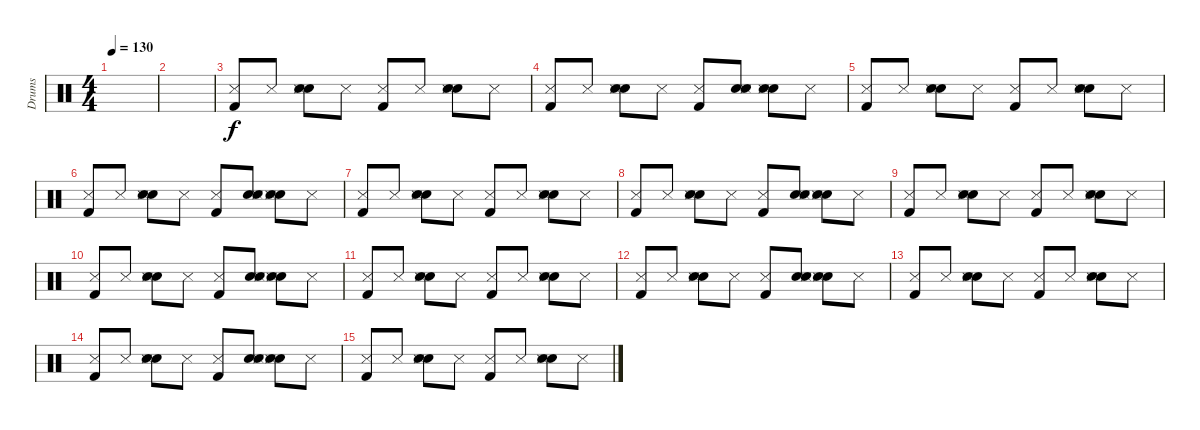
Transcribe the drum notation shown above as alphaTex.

\track ("Drums" "Drums") {instrument percussion}
\staff {score}
\articulation defaults
\ts (4 4)
\tempo 130
\clef neutral
\ks c
|
|
("Snare (side stick) 3" "Kick (hit) 2").8 "Snare (side stick) 3".8 ("Hand Clap (hit)" "Snare (hit) 2" "Snare (side stick) 3").8 "Snare (side stick) 3".8 ("Snare (side stick) 3" "Kick (hit) 2").8 "Snare (side stick) 3".8 ("Hand Clap (hit)" "Snare (hit) 2" "Snare (side stick) 3").8 "Snare (side stick) 3".8 |
("Snare (side stick) 3" "Kick (hit) 2").8 "Snare (side stick) 3".8 ("Hand Clap (hit)" "Snare (hit) 2" "Snare (side stick) 3").8 "Snare (side stick) 3".8 ("Snare (side stick) 3" "Kick (hit) 2").8 ("Hand Clap (hit)" "Snare (hit) 2" "Snare (side stick) 3").8 ("Hand Clap (hit)" "Snare (hit) 2" "Snare (side stick) 3").8 "Snare (side stick) 3".8 |
("Snare (side stick) 3" "Kick (hit) 2").8 "Snare (side stick) 3".8 ("Hand Clap (hit)" "Snare (hit) 2" "Snare (side stick) 3").8 "Snare (side stick) 3".8 ("Snare (side stick) 3" "Kick (hit) 2").8 "Snare (side stick) 3".8 ("Hand Clap (hit)" "Snare (hit) 2" "Snare (side stick) 3").8 "Snare (side stick) 3".8 |
("Snare (side stick) 3" "Kick (hit) 2").8 "Snare (side stick) 3".8 ("Hand Clap (hit)" "Snare (hit) 2" "Snare (side stick) 3").8 "Snare (side stick) 3".8 ("Snare (side stick) 3" "Kick (hit) 2").8 ("Hand Clap (hit)" "Snare (hit) 2" "Snare (side stick) 3").8 ("Hand Clap (hit)" "Snare (hit) 2" "Snare (side stick) 3").8 "Snare (side stick) 3".8 |
("Snare (side stick) 3" "Kick (hit) 2").8 "Snare (side stick) 3".8 ("Hand Clap (hit)" "Snare (hit) 2" "Snare (side stick) 3").8 "Snare (side stick) 3".8 ("Snare (side stick) 3" "Kick (hit) 2").8 "Snare (side stick) 3".8 ("Hand Clap (hit)" "Snare (hit) 2" "Snare (side stick) 3").8 "Snare (side stick) 3".8 |
("Snare (side stick) 3" "Kick (hit) 2").8 "Snare (side stick) 3".8 ("Hand Clap (hit)" "Snare (hit) 2" "Snare (side stick) 3").8 "Snare (side stick) 3".8 ("Snare (side stick) 3" "Kick (hit) 2").8 ("Hand Clap (hit)" "Snare (hit) 2" "Snare (side stick) 3").8 ("Hand Clap (hit)" "Snare (hit) 2" "Snare (side stick) 3").8 "Snare (side stick) 3".8 |
("Snare (side stick) 3" "Kick (hit) 2").8 "Snare (side stick) 3".8 ("Hand Clap (hit)" "Snare (hit) 2" "Snare (side stick) 3").8 "Snare (side stick) 3".8 ("Snare (side stick) 3" "Kick (hit) 2").8 "Snare (side stick) 3".8 ("Hand Clap (hit)" "Snare (hit) 2" "Snare (side stick) 3").8 "Snare (side stick) 3".8 |
("Snare (side stick) 3" "Kick (hit) 2").8 "Snare (side stick) 3".8 ("Hand Clap (hit)" "Snare (hit) 2" "Snare (side stick) 3").8 "Snare (side stick) 3".8 ("Snare (side stick) 3" "Kick (hit) 2").8 ("Hand Clap (hit)" "Snare (hit) 2" "Snare (side stick) 3").8 ("Hand Clap (hit)" "Snare (hit) 2" "Snare (side stick) 3").8 "Snare (side stick) 3".8 |
("Snare (side stick) 3" "Kick (hit) 2").8 "Snare (side stick) 3".8 ("Hand Clap (hit)" "Snare (hit) 2" "Snare (side stick) 3").8 "Snare (side stick) 3".8 ("Snare (side stick) 3" "Kick (hit) 2").8 "Snare (side stick) 3".8 ("Hand Clap (hit)" "Snare (hit) 2" "Snare (side stick) 3").8 "Snare (side stick) 3".8 |
("Snare (side stick) 3" "Kick (hit) 2").8 "Snare (side stick) 3".8 ("Hand Clap (hit)" "Snare (hit) 2" "Snare (side stick) 3").8 "Snare (side stick) 3".8 ("Snare (side stick) 3" "Kick (hit) 2").8 ("Hand Clap (hit)" "Snare (hit) 2" "Snare (side stick) 3").8 ("Hand Clap (hit)" "Snare (hit) 2" "Snare (side stick) 3").8 "Snare (side stick) 3".8 |
("Snare (side stick) 3" "Kick (hit) 2").8 "Snare (side stick) 3".8 ("Hand Clap (hit)" "Snare (hit) 2" "Snare (side stick) 3").8 "Snare (side stick) 3".8 ("Snare (side stick) 3" "Kick (hit) 2").8 "Snare (side stick) 3".8 ("Hand Clap (hit)" "Snare (hit) 2" "Snare (side stick) 3").8 "Snare (side stick) 3".8 |
("Snare (side stick) 3" "Kick (hit) 2").8 "Snare (side stick) 3".8 ("Hand Clap (hit)" "Snare (hit) 2" "Snare (side stick) 3").8 "Snare (side stick) 3".8 ("Snare (side stick) 3" "Kick (hit) 2").8 ("Hand Clap (hit)" "Snare (hit) 2" "Snare (side stick) 3").8 ("Hand Clap (hit)" "Snare (hit) 2" "Snare (side stick) 3").8 "Snare (side stick) 3".8 |
("Snare (side stick) 3" "Kick (hit) 2").8 "Snare (side stick) 3".8 ("Hand Clap (hit)" "Snare (hit) 2" "Snare (side stick) 3").8 "Snare (side stick) 3".8 ("Snare (side stick) 3" "Kick (hit) 2").8 "Snare (side stick) 3".8 ("Hand Clap (hit)" "Snare (hit) 2" "Snare (side stick) 3").8 "Snare (side stick) 3".8
